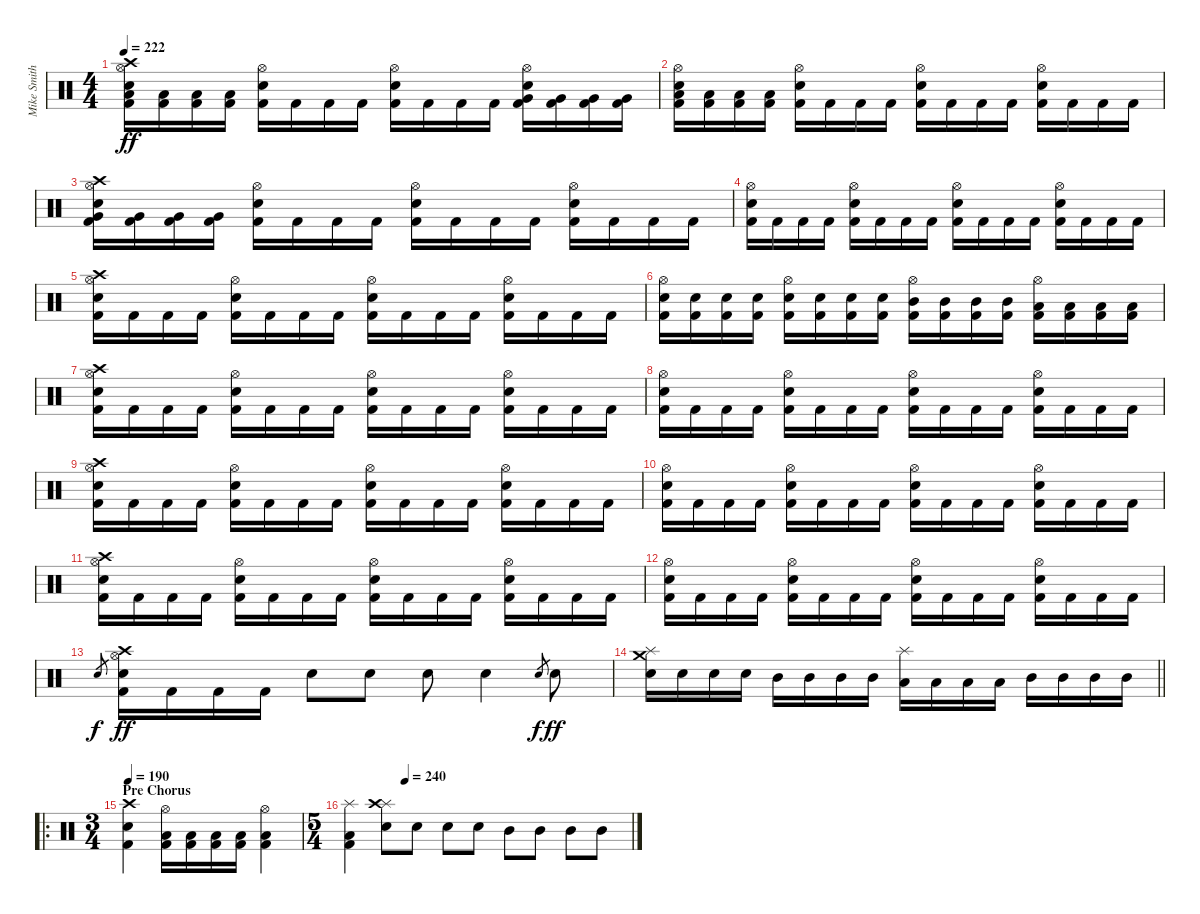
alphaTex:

\track ("Mike Smith (Suffocation)" "Mike Smith") {instrument percussion}
\staff {score}
\articulation defaults
\ts (4 4)
\tempo 222
\clef neutral
\ks c
("Crash high (hit)" "Hi-Hat (open)" "Snare (hit) 2" "Low Tom (hit)" "Kick (hit) 2").16{dy ff} ("Low Tom (hit)" "Kick (hit) 2").16 ("Low Tom (hit)" "Kick (hit) 2").16 ("Low Tom (hit)" "Kick (hit) 2").16 ("Hi-Hat (open)" "Snare (hit) 2" "Kick (hit) 2").16 "Kick (hit) 2".16 "Kick (hit) 2".16 "Kick (hit) 2".16 ("Hi-Hat (open)" "Snare (hit) 2" "Kick (hit) 2").16 "Kick (hit) 2".16 "Kick (hit) 2".16 "Kick (hit) 2".16 ("Hi-Hat (open)" "Snare (hit) 2" "Very Low Tom (hit)" "Kick (hit) 2").16 ("Very Low Tom (hit)" "Kick (hit) 2").16 ("Very Low Tom (hit)" "Kick (hit) 2").16 ("Very Low Tom (hit)" "Kick (hit) 2").16 |
("Hi-Hat (open)" "Snare (hit) 2" "Low Floor Tom (hit)" "Kick (hit) 2").16 ("Low Floor Tom (hit)" "Kick (hit) 2").16 ("Low Floor Tom (hit)" "Kick (hit) 2").16 ("Low Floor Tom (hit)" "Kick (hit) 2").16 ("Hi-Hat (open)" "Snare (hit) 2" "Kick (hit) 2").16 "Kick (hit) 2".16 "Kick (hit) 2".16 "Kick (hit) 2".16 ("Hi-Hat (open)" "Snare (hit) 2" "Kick (hit) 2").16 "Kick (hit) 2".16 "Kick (hit) 2".16 "Kick (hit) 2".16 ("Hi-Hat (open)" "Snare (hit) 2" "Kick (hit) 2").16 "Kick (hit) 2".16 "Kick (hit) 2".16 "Kick (hit) 2".16 |
("Crash high (hit)" "Hi-Hat (open)" "Snare (hit) 2" "Very Low Tom (hit)" "Kick (hit) 2").16 ("Very Low Tom (hit)" "Kick (hit) 2").16 ("Very Low Tom (hit)" "Kick (hit) 2").16 ("Very Low Tom (hit)" "Kick (hit) 2").16 ("Hi-Hat (open)" "Snare (hit) 2" "Kick (hit) 2").16 "Kick (hit) 2".16 "Kick (hit) 2".16 "Kick (hit) 2".16 ("Hi-Hat (open)" "Snare (hit) 2" "Kick (hit) 2").16 "Kick (hit) 2".16 "Kick (hit) 2".16 "Kick (hit) 2".16 ("Hi-Hat (open)" "Snare (hit) 2" "Kick (hit) 2").16 "Kick (hit) 2".16 "Kick (hit) 2".16 "Kick (hit) 2".16 |
("Hi-Hat (open)" "Snare (hit) 2" "Kick (hit) 2").16 "Kick (hit) 2".16 "Kick (hit) 2".16 "Kick (hit) 2".16 ("Hi-Hat (open)" "Snare (hit) 2" "Kick (hit) 2").16 "Kick (hit) 2".16 "Kick (hit) 2".16 "Kick (hit) 2".16 ("Hi-Hat (open)" "Snare (hit) 2" "Kick (hit) 2").16 "Kick (hit) 2".16 "Kick (hit) 2".16 "Kick (hit) 2".16 ("Hi-Hat (open)" "Snare (hit) 2" "Kick (hit) 2").16 "Kick (hit) 2".16 "Kick (hit) 2".16 "Kick (hit) 2".16 |
("Crash high (hit)" "Hi-Hat (open)" "Snare (hit) 2" "Kick (hit) 2").16 "Kick (hit) 2".16 "Kick (hit) 2".16 "Kick (hit) 2".16 ("Hi-Hat (open)" "Snare (hit) 2" "Kick (hit) 2").16 "Kick (hit) 2".16 "Kick (hit) 2".16 "Kick (hit) 2".16 ("Hi-Hat (open)" "Snare (hit) 2" "Kick (hit) 2").16 "Kick (hit) 2".16 "Kick (hit) 2".16 "Kick (hit) 2".16 ("Hi-Hat (open)" "Snare (hit) 2" "Kick (hit) 2").16 "Kick (hit) 2".16 "Kick (hit) 2".16 "Kick (hit) 2".16 |
("Hi-Hat (open)" "Snare (hit) 2" "Kick (hit) 2").16 ("Snare (hit) 2" "Kick (hit) 2").16 ("Snare (hit) 2" "Kick (hit) 2").16 ("Snare (hit) 2" "Kick (hit) 2").16 ("Hi-Hat (open)" "Snare (hit) 2" "Kick (hit) 2").16 ("Snare (hit) 2" "Kick (hit) 2").16 ("Snare (hit) 2" "Kick (hit) 2").16 ("Snare (hit) 2" "Kick (hit) 2").16 ("Hi-Hat (open)" "Mid Tom (hit)" "Kick (hit) 2").16 ("Mid Tom (hit)" "Kick (hit) 2").16 ("Mid Tom (hit)" "Kick (hit) 2").16 ("Mid Tom (hit)" "Kick (hit) 2").16 ("Hi-Hat (open)" "Low Tom (hit)" "Kick (hit) 2").16 ("Low Tom (hit)" "Kick (hit) 2").16 ("Low Tom (hit)" "Kick (hit) 2").16 ("Low Tom (hit)" "Kick (hit) 2").16 |
("Crash high (hit)" "Hi-Hat (open)" "Snare (hit) 2" "Kick (hit) 2").16 "Kick (hit) 2".16 "Kick (hit) 2".16 "Kick (hit) 2".16 ("Hi-Hat (open)" "Snare (hit) 2" "Kick (hit) 2").16 "Kick (hit) 2".16 "Kick (hit) 2".16 "Kick (hit) 2".16 ("Hi-Hat (open)" "Snare (hit) 2" "Kick (hit) 2").16 "Kick (hit) 2".16 "Kick (hit) 2".16 "Kick (hit) 2".16 ("Hi-Hat (open)" "Snare (hit) 2" "Kick (hit) 2").16 "Kick (hit) 2".16 "Kick (hit) 2".16 "Kick (hit) 2".16 |
("Hi-Hat (open)" "Snare (hit) 2" "Kick (hit) 2").16 "Kick (hit) 2".16 "Kick (hit) 2".16 "Kick (hit) 2".16 ("Hi-Hat (open)" "Snare (hit) 2" "Kick (hit) 2").16 "Kick (hit) 2".16 "Kick (hit) 2".16 "Kick (hit) 2".16 ("Hi-Hat (open)" "Snare (hit) 2" "Kick (hit) 2").16 "Kick (hit) 2".16 "Kick (hit) 2".16 "Kick (hit) 2".16 ("Hi-Hat (open)" "Snare (hit) 2" "Kick (hit) 2").16 "Kick (hit) 2".16 "Kick (hit) 2".16 "Kick (hit) 2".16 |
("Crash high (hit)" "Hi-Hat (open)" "Snare (hit) 2" "Kick (hit) 2").16 "Kick (hit) 2".16 "Kick (hit) 2".16 "Kick (hit) 2".16 ("Hi-Hat (open)" "Snare (hit) 2" "Kick (hit) 2").16 "Kick (hit) 2".16 "Kick (hit) 2".16 "Kick (hit) 2".16 ("Hi-Hat (open)" "Snare (hit) 2" "Kick (hit) 2").16 "Kick (hit) 2".16 "Kick (hit) 2".16 "Kick (hit) 2".16 ("Hi-Hat (open)" "Snare (hit) 2" "Kick (hit) 2").16 "Kick (hit) 2".16 "Kick (hit) 2".16 "Kick (hit) 2".16 |
("Hi-Hat (open)" "Snare (hit) 2" "Kick (hit) 2").16 "Kick (hit) 2".16 "Kick (hit) 2".16 "Kick (hit) 2".16 ("Hi-Hat (open)" "Snare (hit) 2" "Kick (hit) 2").16 "Kick (hit) 2".16 "Kick (hit) 2".16 "Kick (hit) 2".16 ("Hi-Hat (open)" "Snare (hit) 2" "Kick (hit) 2").16 "Kick (hit) 2".16 "Kick (hit) 2".16 "Kick (hit) 2".16 ("Hi-Hat (open)" "Snare (hit) 2" "Kick (hit) 2").16 "Kick (hit) 2".16 "Kick (hit) 2".16 "Kick (hit) 2".16 |
("Crash high (hit)" "Hi-Hat (open)" "Snare (hit) 2" "Kick (hit) 2").16 "Kick (hit) 2".16 "Kick (hit) 2".16 "Kick (hit) 2".16 ("Hi-Hat (open)" "Snare (hit) 2" "Kick (hit) 2").16 "Kick (hit) 2".16 "Kick (hit) 2".16 "Kick (hit) 2".16 ("Hi-Hat (open)" "Snare (hit) 2" "Kick (hit) 2").16 "Kick (hit) 2".16 "Kick (hit) 2".16 "Kick (hit) 2".16 ("Hi-Hat (open)" "Snare (hit) 2" "Kick (hit) 2").16 "Kick (hit) 2".16 "Kick (hit) 2".16 "Kick (hit) 2".16 |
("Hi-Hat (open)" "Snare (hit) 2" "Kick (hit) 2").16 "Kick (hit) 2".16 "Kick (hit) 2".16 "Kick (hit) 2".16 ("Hi-Hat (open)" "Snare (hit) 2" "Kick (hit) 2").16 "Kick (hit) 2".16 "Kick (hit) 2".16 "Kick (hit) 2".16 ("Hi-Hat (open)" "Snare (hit) 2" "Kick (hit) 2").16 "Kick (hit) 2".16 "Kick (hit) 2".16 "Kick (hit) 2".16 ("Hi-Hat (open)" "Snare (hit) 2" "Kick (hit) 2").16 "Kick (hit) 2".16 "Kick (hit) 2".16 "Kick (hit) 2".16 |
"Snare (hit) 2".8{gr dy f} ("Crash high (hit)" "Hi-Hat (open)" "Snare (hit) 2" "Kick (hit) 2").16{dy ff} "Kick (hit) 2".16 "Kick (hit) 2".16 "Kick (hit) 2".16 "Snare (hit) 2".8 "Snare (hit) 2".8 "Snare (hit) 2".8 "Snare (hit) 2".4 "Snare (hit) 2".8{gr dy f} "Snare (hit) 2".8{dy ff} |
\barLineRight lightlight
("Splash (hit)" "Crash medium (hit)" "Snare (hit) 2").16 "Snare (hit) 2".16 "Snare (hit) 2".16 "Snare (hit) 2".16 "Mid Tom (hit)".16 "Mid Tom (hit)".16 "Mid Tom (hit)".16 "Mid Tom (hit)".16 ("Splash (hit)" "Low Tom (hit)").16 "Low Tom (hit)".16 "Low Tom (hit)".16 "Low Tom (hit)".16 "Mid Tom (hit)".16 "Mid Tom (hit)".16 "Mid Tom (hit)".16 "Mid Tom (hit)".16 |
\ro
\ts (3 4)
\section ("" "Pre Chorus")
\tempo 190
("Crash high (hit)" "Snare (hit) 2" "Kick (hit) 2").4{volume 16} ("Hi-Hat (open)" "Low Tom (hit)" "Kick (hit) 2").16 ("Low Tom (hit)" "Kick (hit) 2").16 ("Low Tom (hit)" "Kick (hit) 2").16 ("Low Tom (hit)" "Kick (hit) 2").16 ("Hi-Hat (open)" "Low Tom (hit)" "Kick (hit) 2").4 |
\ts (5 4)
\tempo (240 0.2)
("Splash (hit)" "Low Tom (hit)" "Kick (hit) 2").4 ("Splash (hit)" "Crash high (hit)" "Snare (hit) 2").8 "Snare (hit) 2".8 "Snare (hit) 2".8 "Snare (hit) 2".8 "Mid Tom (hit)".8 "Mid Tom (hit)".8 "Mid Tom (hit)".8 "Mid Tom (hit)".8
